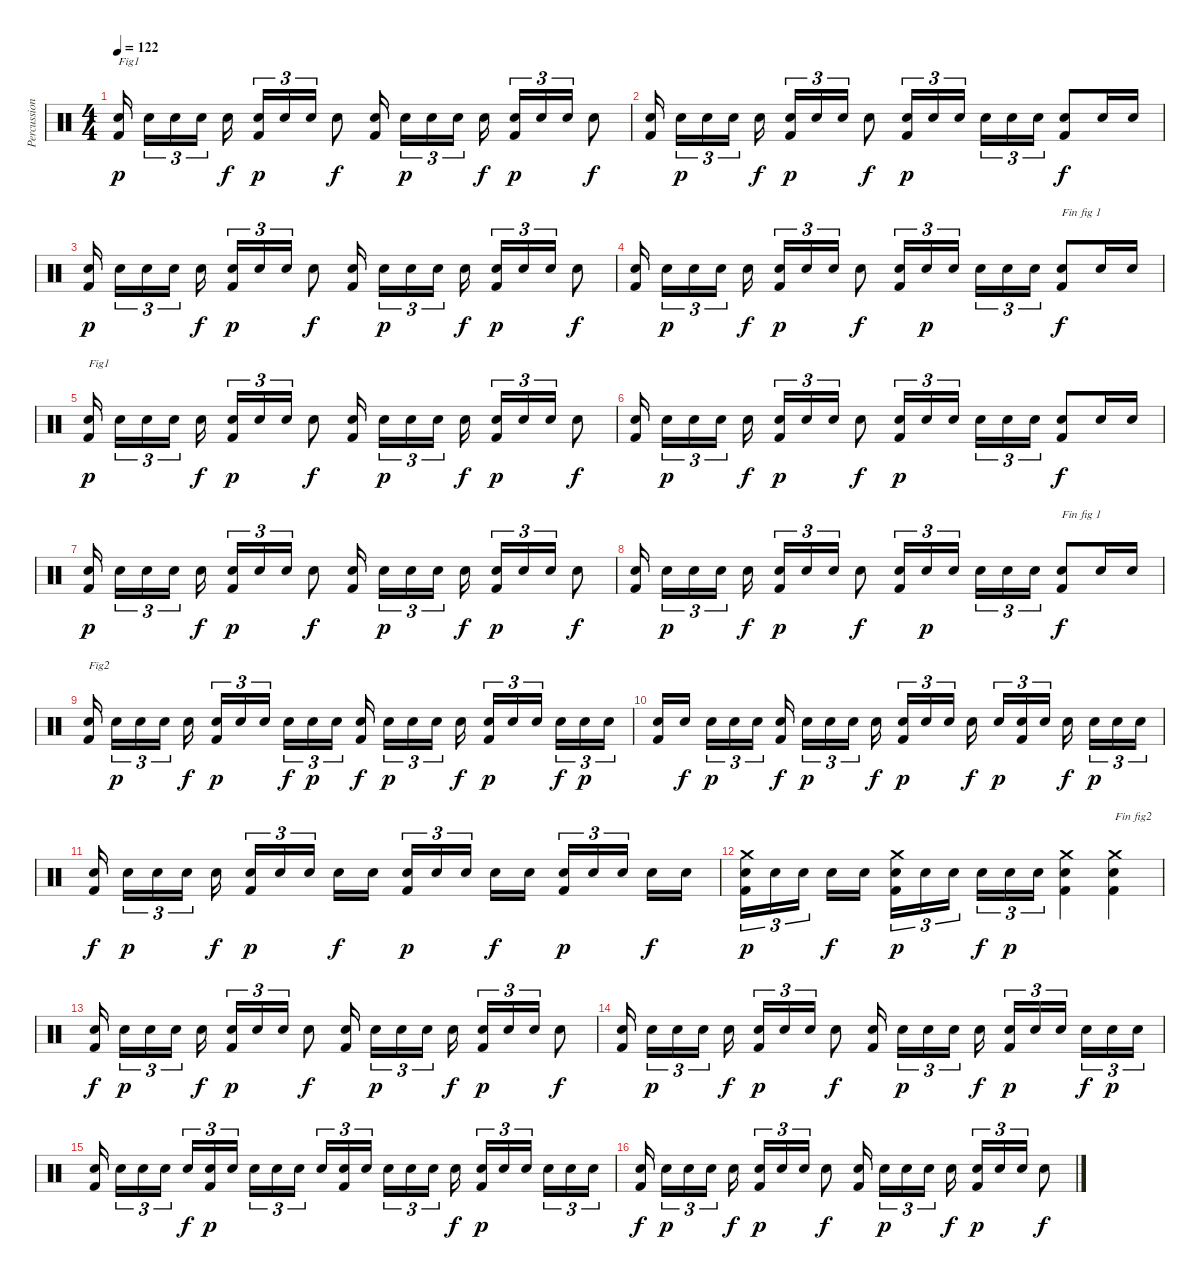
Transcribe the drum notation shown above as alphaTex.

\track ("Percussions" "Percussion") {instrument percussion}
\staff {score}
\articulation defaults
\ts (4 4)
\tempo 122
\clef neutral
\ks c
("Kick (hit) 2" "Snare (hit) 2").16{txt "Fig1" dy p} "Snare (hit) 2".16{tu (3 2)} "Snare (hit) 2".16{tu (3 2)} "Snare (hit) 2".16{tu (3 2)} "Snare (hit) 2".16{dy f} ("Kick (hit) 2" "Snare (hit) 2").16{tu (3 2) dy p} "Snare (hit) 2".16{tu (3 2)} "Snare (hit) 2".16{tu (3 2)} "Snare (hit) 2".8{dy f} ("Kick (hit) 2" "Snare (hit) 2").16 "Snare (hit) 2".16{tu (3 2) dy p} "Snare (hit) 2".16{tu (3 2)} "Snare (hit) 2".16{tu (3 2)} "Snare (hit) 2".16{dy f} ("Kick (hit) 2" "Snare (hit) 2").16{tu (3 2) dy p} "Snare (hit) 2".16{tu (3 2)} "Snare (hit) 2".16{tu (3 2)} "Snare (hit) 2".8{dy f} |
("Kick (hit) 2" "Snare (hit) 2").16 "Snare (hit) 2".16{tu (3 2) dy p} "Snare (hit) 2".16{tu (3 2)} "Snare (hit) 2".16{tu (3 2)} "Snare (hit) 2".16{dy f} ("Kick (hit) 2" "Snare (hit) 2").16{tu (3 2) dy p} "Snare (hit) 2".16{tu (3 2)} "Snare (hit) 2".16{tu (3 2)} "Snare (hit) 2".8{dy f} ("Kick (hit) 2" "Snare (hit) 2").16{tu (3 2) dy p} "Snare (hit) 2".16{tu (3 2)} "Snare (hit) 2".16{tu (3 2)} "Snare (hit) 2".16{tu (3 2)} "Snare (hit) 2".16{tu (3 2)} "Snare (hit) 2".16{tu (3 2)} ("Kick (hit) 2" "Snare (hit) 2").8{dy f} "Snare (hit) 2".16 "Snare (hit) 2".16 |
("Kick (hit) 2" "Snare (hit) 2").16{dy p} "Snare (hit) 2".16{tu (3 2)} "Snare (hit) 2".16{tu (3 2)} "Snare (hit) 2".16{tu (3 2)} "Snare (hit) 2".16{dy f} ("Kick (hit) 2" "Snare (hit) 2").16{tu (3 2) dy p} "Snare (hit) 2".16{tu (3 2)} "Snare (hit) 2".16{tu (3 2)} "Snare (hit) 2".8{dy f} ("Kick (hit) 2" "Snare (hit) 2").16 "Snare (hit) 2".16{tu (3 2) dy p} "Snare (hit) 2".16{tu (3 2)} "Snare (hit) 2".16{tu (3 2)} "Snare (hit) 2".16{dy f} ("Kick (hit) 2" "Snare (hit) 2").16{tu (3 2) dy p} "Snare (hit) 2".16{tu (3 2)} "Snare (hit) 2".16{tu (3 2)} "Snare (hit) 2".8{dy f} |
("Kick (hit) 2" "Snare (hit) 2").16 "Snare (hit) 2".16{tu (3 2) dy p} "Snare (hit) 2".16{tu (3 2)} "Snare (hit) 2".16{tu (3 2)} "Snare (hit) 2".16{dy f} ("Kick (hit) 2" "Snare (hit) 2").16{tu (3 2) dy p} "Snare (hit) 2".16{tu (3 2)} "Snare (hit) 2".16{tu (3 2)} "Snare (hit) 2".8{dy f} ("Kick (hit) 2" "Snare (hit) 2").16{tu (3 2)} "Snare (hit) 2".16{tu (3 2) dy p} "Snare (hit) 2".16{tu (3 2)} "Snare (hit) 2".16{tu (3 2)} "Snare (hit) 2".16{tu (3 2)} "Snare (hit) 2".16{tu (3 2)} ("Kick (hit) 2" "Snare (hit) 2").8{txt "Fin fig 1" dy f} "Snare (hit) 2".16 "Snare (hit) 2".16 |
("Kick (hit) 2" "Snare (hit) 2").16{txt "Fig1" dy p} "Snare (hit) 2".16{tu (3 2)} "Snare (hit) 2".16{tu (3 2)} "Snare (hit) 2".16{tu (3 2)} "Snare (hit) 2".16{dy f} ("Kick (hit) 2" "Snare (hit) 2").16{tu (3 2) dy p} "Snare (hit) 2".16{tu (3 2)} "Snare (hit) 2".16{tu (3 2)} "Snare (hit) 2".8{dy f} ("Kick (hit) 2" "Snare (hit) 2").16 "Snare (hit) 2".16{tu (3 2) dy p} "Snare (hit) 2".16{tu (3 2)} "Snare (hit) 2".16{tu (3 2)} "Snare (hit) 2".16{dy f} ("Kick (hit) 2" "Snare (hit) 2").16{tu (3 2) dy p} "Snare (hit) 2".16{tu (3 2)} "Snare (hit) 2".16{tu (3 2)} "Snare (hit) 2".8{dy f} |
("Kick (hit) 2" "Snare (hit) 2").16 "Snare (hit) 2".16{tu (3 2) dy p} "Snare (hit) 2".16{tu (3 2)} "Snare (hit) 2".16{tu (3 2)} "Snare (hit) 2".16{dy f} ("Kick (hit) 2" "Snare (hit) 2").16{tu (3 2) dy p} "Snare (hit) 2".16{tu (3 2)} "Snare (hit) 2".16{tu (3 2)} "Snare (hit) 2".8{dy f} ("Kick (hit) 2" "Snare (hit) 2").16{tu (3 2) dy p} "Snare (hit) 2".16{tu (3 2)} "Snare (hit) 2".16{tu (3 2)} "Snare (hit) 2".16{tu (3 2)} "Snare (hit) 2".16{tu (3 2)} "Snare (hit) 2".16{tu (3 2)} ("Kick (hit) 2" "Snare (hit) 2").8{dy f} "Snare (hit) 2".16 "Snare (hit) 2".16 |
("Kick (hit) 2" "Snare (hit) 2").16{dy p} "Snare (hit) 2".16{tu (3 2)} "Snare (hit) 2".16{tu (3 2)} "Snare (hit) 2".16{tu (3 2)} "Snare (hit) 2".16{dy f} ("Kick (hit) 2" "Snare (hit) 2").16{tu (3 2) dy p} "Snare (hit) 2".16{tu (3 2)} "Snare (hit) 2".16{tu (3 2)} "Snare (hit) 2".8{dy f} ("Kick (hit) 2" "Snare (hit) 2").16 "Snare (hit) 2".16{tu (3 2) dy p} "Snare (hit) 2".16{tu (3 2)} "Snare (hit) 2".16{tu (3 2)} "Snare (hit) 2".16{dy f} ("Kick (hit) 2" "Snare (hit) 2").16{tu (3 2) dy p} "Snare (hit) 2".16{tu (3 2)} "Snare (hit) 2".16{tu (3 2)} "Snare (hit) 2".8{dy f} |
("Kick (hit) 2" "Snare (hit) 2").16 "Snare (hit) 2".16{tu (3 2) dy p} "Snare (hit) 2".16{tu (3 2)} "Snare (hit) 2".16{tu (3 2)} "Snare (hit) 2".16{dy f} ("Kick (hit) 2" "Snare (hit) 2").16{tu (3 2) dy p} "Snare (hit) 2".16{tu (3 2)} "Snare (hit) 2".16{tu (3 2)} "Snare (hit) 2".8{dy f} ("Kick (hit) 2" "Snare (hit) 2").16{tu (3 2)} "Snare (hit) 2".16{tu (3 2) dy p} "Snare (hit) 2".16{tu (3 2)} "Snare (hit) 2".16{tu (3 2)} "Snare (hit) 2".16{tu (3 2)} "Snare (hit) 2".16{tu (3 2)} ("Kick (hit) 2" "Snare (hit) 2").8{txt "Fin fig 1" dy f} "Snare (hit) 2".16 "Snare (hit) 2".16 |
("Kick (hit) 2" "Snare (hit) 2").16{txt "Fig2"} "Snare (hit) 2".16{tu (3 2) dy p} "Snare (hit) 2".16{tu (3 2)} "Snare (hit) 2".16{tu (3 2)} "Snare (hit) 2".16{dy f} ("Kick (hit) 2" "Snare (hit) 2").16{tu (3 2) dy p} "Snare (hit) 2".16{tu (3 2)} "Snare (hit) 2".16{tu (3 2)} "Snare (hit) 2".16{tu (3 2) dy f} "Snare (hit) 2".16{tu (3 2) dy p} "Snare (hit) 2".16{tu (3 2)} ("Kick (hit) 2" "Snare (hit) 2").16{dy f} "Snare (hit) 2".16{tu (3 2) dy p} "Snare (hit) 2".16{tu (3 2)} "Snare (hit) 2".16{tu (3 2)} "Snare (hit) 2".16{dy f} ("Kick (hit) 2" "Snare (hit) 2").16{tu (3 2) dy p} "Snare (hit) 2".16{tu (3 2)} "Snare (hit) 2".16{tu (3 2)} "Snare (hit) 2".16{tu (3 2) dy f} "Snare (hit) 2".16{tu (3 2) dy p} "Snare (hit) 2".16{tu (3 2)} |
("Kick (hit) 2" "Snare (hit) 2").16 "Snare (hit) 2".16{dy f} "Snare (hit) 2".16{tu (3 2) dy p} "Snare (hit) 2".16{tu (3 2)} "Snare (hit) 2".16{tu (3 2)} ("Kick (hit) 2" "Snare (hit) 2").16{dy f} "Snare (hit) 2".16{tu (3 2) dy p} "Snare (hit) 2".16{tu (3 2)} "Snare (hit) 2".16{tu (3 2)} "Snare (hit) 2".16{dy f} ("Kick (hit) 2" "Snare (hit) 2").16{tu (3 2) dy p} "Snare (hit) 2".16{tu (3 2)} "Snare (hit) 2".16{tu (3 2)} "Snare (hit) 2".16{dy f} "Snare (hit) 2".16{tu (3 2) dy p} ("Kick (hit) 2" "Snare (hit) 2").16{tu (3 2)} "Snare (hit) 2".16{tu (3 2)} "Snare (hit) 2".16{dy f} "Snare (hit) 2".16{tu (3 2) dy p} "Snare (hit) 2".16{tu (3 2)} "Snare (hit) 2".16{tu (3 2)} |
("Kick (hit) 2" "Snare (hit) 2").16{dy f} "Snare (hit) 2".16{tu (3 2) dy p} "Snare (hit) 2".16{tu (3 2)} "Snare (hit) 2".16{tu (3 2)} "Snare (hit) 2".16{dy f} ("Kick (hit) 2" "Snare (hit) 2").16{tu (3 2) dy p} "Snare (hit) 2".16{tu (3 2)} "Snare (hit) 2".16{tu (3 2)} "Snare (hit) 2".16{dy f} "Snare (hit) 2".16 ("Kick (hit) 2" "Snare (hit) 2").16{tu (3 2) dy p} "Snare (hit) 2".16{tu (3 2)} "Snare (hit) 2".16{tu (3 2)} "Snare (hit) 2".16{dy f} "Snare (hit) 2".16 ("Kick (hit) 2" "Snare (hit) 2").16{tu (3 2) dy p} "Snare (hit) 2".16{tu (3 2)} "Snare (hit) 2".16{tu (3 2)} "Snare (hit) 2".16{dy f} "Snare (hit) 2".16 |
("Kick (hit) 2" "Snare (hit) 2" "Crash medium (hit)").16{tu (3 2) dy p} "Snare (hit) 2".16{tu (3 2)} "Snare (hit) 2".16{tu (3 2)} "Snare (hit) 2".16{dy f} "Snare (hit) 2".16 ("Kick (hit) 2" "Snare (hit) 2" "Crash medium (hit)").16{tu (3 2) dy p} "Snare (hit) 2".16{tu (3 2)} "Snare (hit) 2".16{tu (3 2)} "Snare (hit) 2".16{tu (3 2) dy f} "Snare (hit) 2".16{tu (3 2) dy p} "Snare (hit) 2".16{tu (3 2)} ("Kick (hit) 2" "Snare (hit) 2" "Crash medium (hit)").4 ("Kick (hit) 2" "Snare (hit) 2" "Crash medium (hit)").4{txt "Fin fig2"} |
("Kick (hit) 2" "Snare (hit) 2").16{dy f} "Snare (hit) 2".16{tu (3 2) dy p} "Snare (hit) 2".16{tu (3 2)} "Snare (hit) 2".16{tu (3 2)} "Snare (hit) 2".16{dy f} ("Kick (hit) 2" "Snare (hit) 2").16{tu (3 2) dy p} "Snare (hit) 2".16{tu (3 2)} "Snare (hit) 2".16{tu (3 2)} "Snare (hit) 2".8{dy f} ("Kick (hit) 2" "Snare (hit) 2").16 "Snare (hit) 2".16{tu (3 2) dy p} "Snare (hit) 2".16{tu (3 2)} "Snare (hit) 2".16{tu (3 2)} "Snare (hit) 2".16{dy f} ("Kick (hit) 2" "Snare (hit) 2").16{tu (3 2) dy p} "Snare (hit) 2".16{tu (3 2)} "Snare (hit) 2".16{tu (3 2)} "Snare (hit) 2".8{dy f} |
("Kick (hit) 2" "Snare (hit) 2").16 "Snare (hit) 2".16{tu (3 2) dy p} "Snare (hit) 2".16{tu (3 2)} "Snare (hit) 2".16{tu (3 2)} "Snare (hit) 2".16{dy f} ("Kick (hit) 2" "Snare (hit) 2").16{tu (3 2) dy p} "Snare (hit) 2".16{tu (3 2)} "Snare (hit) 2".16{tu (3 2)} "Snare (hit) 2".8{dy f} ("Kick (hit) 2" "Snare (hit) 2").16 "Snare (hit) 2".16{tu (3 2) dy p} "Snare (hit) 2".16{tu (3 2)} "Snare (hit) 2".16{tu (3 2)} "Snare (hit) 2".16{dy f} ("Kick (hit) 2" "Snare (hit) 2").16{tu (3 2) dy p} "Snare (hit) 2".16{tu (3 2)} "Snare (hit) 2".16{tu (3 2)} "Snare (hit) 2".16{tu (3 2) dy f} "Snare (hit) 2".16{tu (3 2) dy p} "Snare (hit) 2".16{tu (3 2)} |
("Kick (hit) 2" "Snare (hit) 2").16 "Snare (hit) 2".16{tu (3 2)} "Snare (hit) 2".16{tu (3 2)} "Snare (hit) 2".16{tu (3 2)} "Snare (hit) 2".16{tu (3 2) dy f} ("Kick (hit) 2" "Snare (hit) 2").16{tu (3 2) dy p} "Snare (hit) 2".16{tu (3 2)} "Snare (hit) 2".16{tu (3 2)} "Snare (hit) 2".16{tu (3 2)} "Snare (hit) 2".16{tu (3 2)} "Snare (hit) 2".16{tu (3 2)} ("Kick (hit) 2" "Snare (hit) 2").16{tu (3 2)} "Snare (hit) 2".16{tu (3 2)} "Snare (hit) 2".16{tu (3 2)} "Snare (hit) 2".16{tu (3 2)} "Snare (hit) 2".16{tu (3 2)} "Snare (hit) 2".16{dy f} ("Kick (hit) 2" "Snare (hit) 2").16{tu (3 2) dy p} "Snare (hit) 2".16{tu (3 2)} "Snare (hit) 2".16{tu (3 2)} "Snare (hit) 2".16{tu (3 2)} "Snare (hit) 2".16{tu (3 2)} "Snare (hit) 2".16{tu (3 2)} |
("Kick (hit) 2" "Snare (hit) 2").16{dy f} "Snare (hit) 2".16{tu (3 2) dy p} "Snare (hit) 2".16{tu (3 2)} "Snare (hit) 2".16{tu (3 2)} "Snare (hit) 2".16{dy f} ("Kick (hit) 2" "Snare (hit) 2").16{tu (3 2) dy p} "Snare (hit) 2".16{tu (3 2)} "Snare (hit) 2".16{tu (3 2)} "Snare (hit) 2".8{dy f} ("Kick (hit) 2" "Snare (hit) 2").16 "Snare (hit) 2".16{tu (3 2) dy p} "Snare (hit) 2".16{tu (3 2)} "Snare (hit) 2".16{tu (3 2)} "Snare (hit) 2".16{dy f} ("Kick (hit) 2" "Snare (hit) 2").16{tu (3 2) dy p} "Snare (hit) 2".16{tu (3 2)} "Snare (hit) 2".16{tu (3 2)} "Snare (hit) 2".8{dy f}
